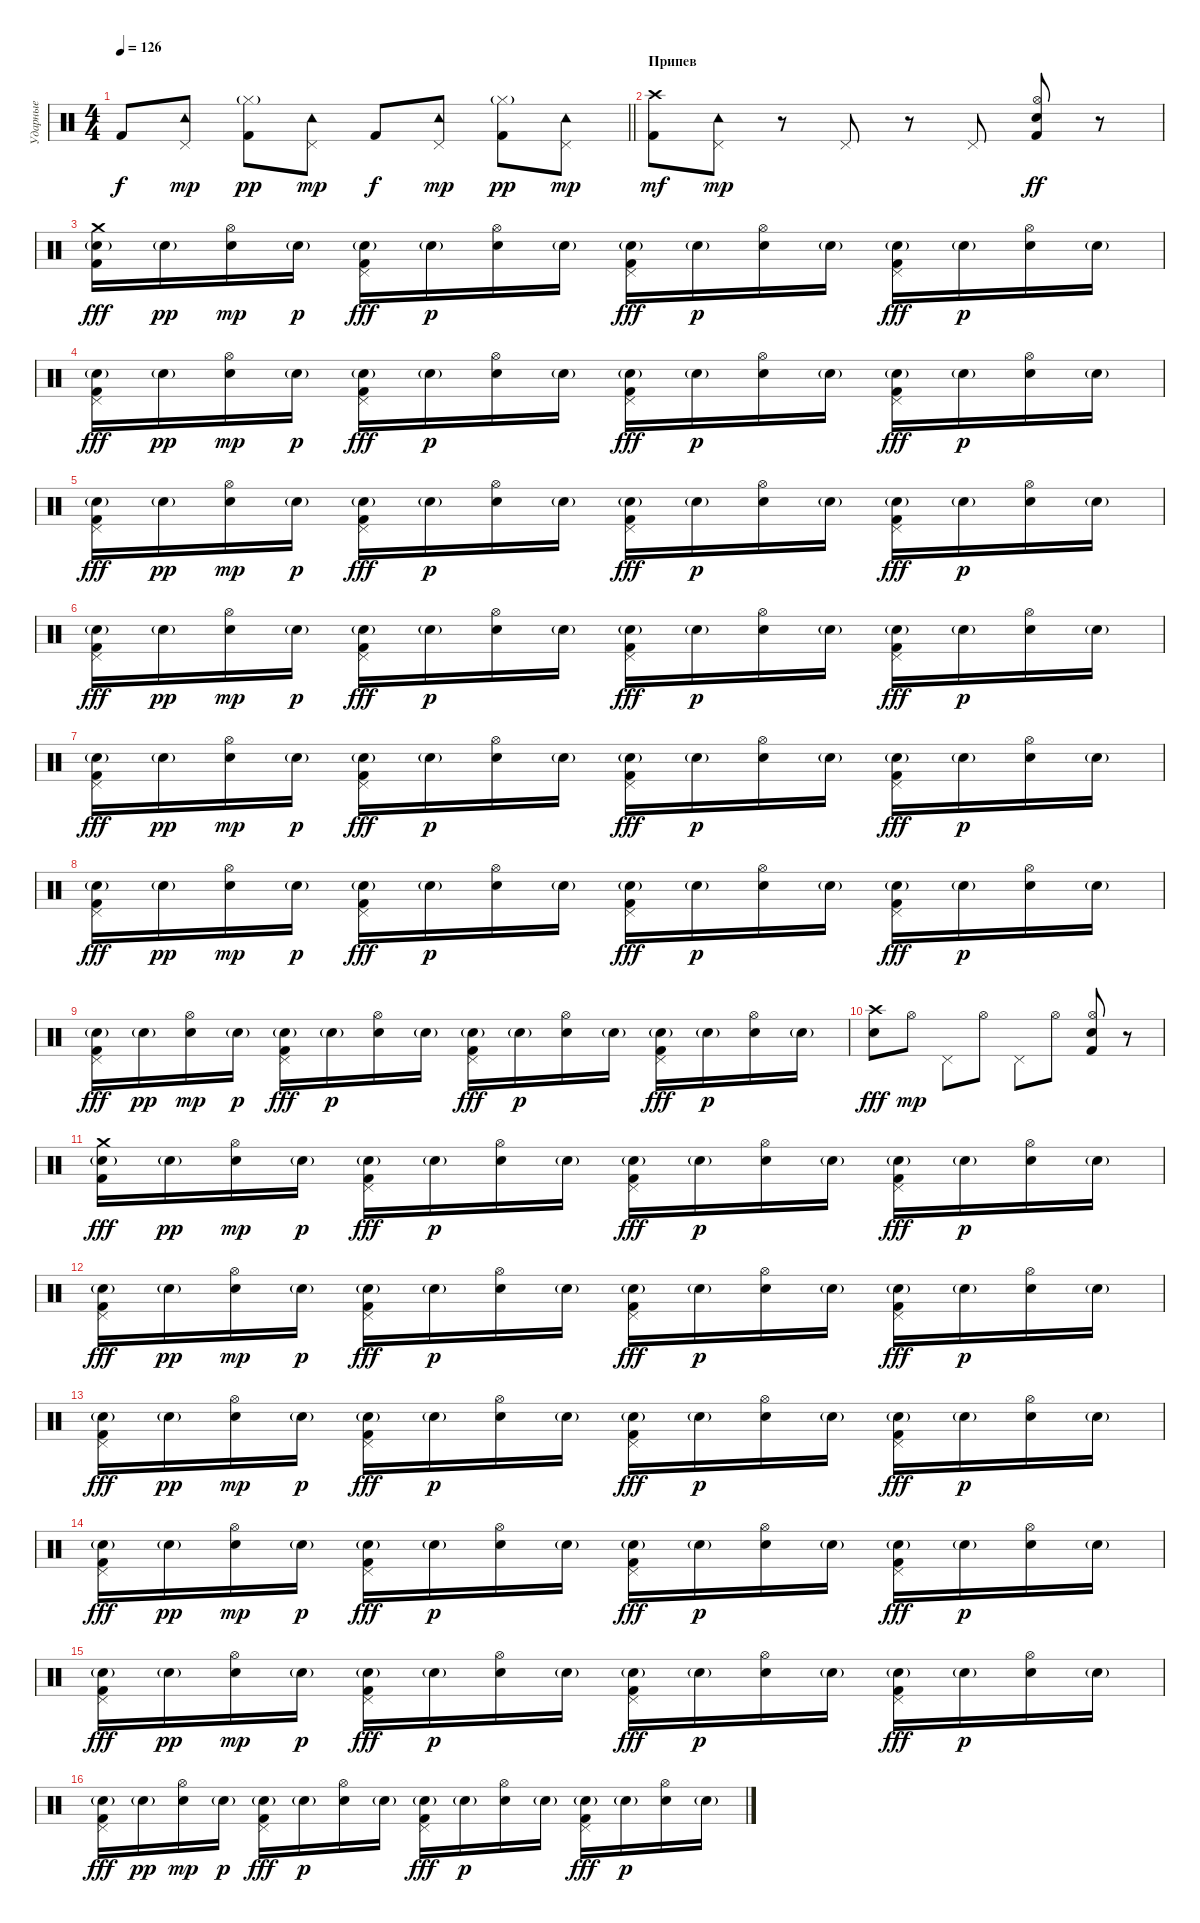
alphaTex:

\track ("Ударные" "Ударные") {instrument percussion}
\staff {score}
\articulation defaults
\ts (4 4)
\tempo 126
\clef neutral
\barLineRight lightlight
\ks c "Kick (hit) 2".8{dy f}
("Pedal Hi-Hat (hit)" "Tambourine (hit)").8{dy mp} ("Hi-Hat (closed)"{g} "Kick (hit) 2").8{dy pp} ("Pedal Hi-Hat (hit)" "Tambourine (hit)").8{dy mp} "Kick (hit) 2".8{dy f} ("Pedal Hi-Hat (hit)" "Tambourine (hit)").8{dy mp} ("Hi-Hat (closed)"{g} "Kick (hit) 2").8{dy pp} ("Pedal Hi-Hat (hit)" "Tambourine (hit)").8{dy mp} |
\section ("" "Припев")
("Crash high (hit)" "Kick (hit) 2").8{dy mf} ("Pedal Hi-Hat (hit)" "Tambourine (hit)").8{dy mp} r.8 "Pedal Hi-Hat (hit)".8 r.8 "Pedal Hi-Hat (hit)".8 ("Hi-Hat (open)" "Electric Snare (hit)" "Kick (hit) 2").8{dy ff} r.8 |
("Crash medium (hit)" "Snare (hit) 2"{g} "Kick (hit) 2").16{dy fff} "Snare (hit) 2"{g}.16{dy pp} ("Hi-Hat (open)" "Electric Snare (hit)").16{dy mp} "Snare (hit) 2"{g}.16{dy p} ("Pedal Hi-Hat (hit)" "Snare (hit) 2"{g} "Kick (hit) 2").16{dy fff} "Snare (hit) 2"{g}.16{dy p} ("Hi-Hat (open)" "Electric Snare (hit)").16 "Snare (hit) 2"{g}.16 ("Pedal Hi-Hat (hit)" "Snare (hit) 2"{g} "Kick (hit) 2").16{dy fff} "Snare (hit) 2"{g}.16{dy p} ("Hi-Hat (open)" "Electric Snare (hit)").16 "Snare (hit) 2"{g}.16 ("Pedal Hi-Hat (hit)" "Snare (hit) 2"{g} "Kick (hit) 2").16{dy fff} "Snare (hit) 2"{g}.16{dy p} ("Hi-Hat (open)" "Electric Snare (hit)").16 "Snare (hit) 2"{g}.16 |
("Pedal Hi-Hat (hit)" "Snare (hit) 2"{g} "Kick (hit) 2").16{dy fff} "Snare (hit) 2"{g}.16{dy pp} ("Hi-Hat (open)" "Electric Snare (hit)").16{dy mp} "Snare (hit) 2"{g}.16{dy p} ("Pedal Hi-Hat (hit)" "Snare (hit) 2"{g} "Kick (hit) 2").16{dy fff} "Snare (hit) 2"{g}.16{dy p} ("Hi-Hat (open)" "Electric Snare (hit)").16 "Snare (hit) 2"{g}.16 ("Pedal Hi-Hat (hit)" "Snare (hit) 2"{g} "Kick (hit) 2").16{dy fff} "Snare (hit) 2"{g}.16{dy p} ("Hi-Hat (open)" "Electric Snare (hit)").16 "Snare (hit) 2"{g}.16 ("Pedal Hi-Hat (hit)" "Snare (hit) 2"{g} "Kick (hit) 2").16{dy fff} "Snare (hit) 2"{g}.16{dy p} ("Hi-Hat (open)" "Electric Snare (hit)").16 "Snare (hit) 2"{g}.16 |
("Pedal Hi-Hat (hit)" "Snare (hit) 2"{g} "Kick (hit) 2").16{dy fff} "Snare (hit) 2"{g}.16{dy pp} ("Hi-Hat (open)" "Electric Snare (hit)").16{dy mp} "Snare (hit) 2"{g}.16{dy p} ("Pedal Hi-Hat (hit)" "Snare (hit) 2"{g} "Kick (hit) 2").16{dy fff} "Snare (hit) 2"{g}.16{dy p} ("Hi-Hat (open)" "Electric Snare (hit)").16 "Snare (hit) 2"{g}.16 ("Pedal Hi-Hat (hit)" "Snare (hit) 2"{g} "Kick (hit) 2").16{dy fff} "Snare (hit) 2"{g}.16{dy p} ("Hi-Hat (open)" "Electric Snare (hit)").16 "Snare (hit) 2"{g}.16 ("Pedal Hi-Hat (hit)" "Snare (hit) 2"{g} "Kick (hit) 2").16{dy fff} "Snare (hit) 2"{g}.16{dy p} ("Hi-Hat (open)" "Electric Snare (hit)").16 "Snare (hit) 2"{g}.16 |
("Pedal Hi-Hat (hit)" "Snare (hit) 2"{g} "Kick (hit) 2").16{dy fff} "Snare (hit) 2"{g}.16{dy pp} ("Hi-Hat (open)" "Electric Snare (hit)").16{dy mp} "Snare (hit) 2"{g}.16{dy p} ("Pedal Hi-Hat (hit)" "Snare (hit) 2"{g} "Kick (hit) 2").16{dy fff} "Snare (hit) 2"{g}.16{dy p} ("Hi-Hat (open)" "Electric Snare (hit)").16 "Snare (hit) 2"{g}.16 ("Pedal Hi-Hat (hit)" "Snare (hit) 2"{g} "Kick (hit) 2").16{dy fff} "Snare (hit) 2"{g}.16{dy p} ("Hi-Hat (open)" "Electric Snare (hit)").16 "Snare (hit) 2"{g}.16 ("Pedal Hi-Hat (hit)" "Snare (hit) 2"{g} "Kick (hit) 2").16{dy fff} "Snare (hit) 2"{g}.16{dy p} ("Hi-Hat (open)" "Electric Snare (hit)").16 "Snare (hit) 2"{g}.16 |
("Pedal Hi-Hat (hit)" "Snare (hit) 2"{g} "Kick (hit) 2").16{dy fff} "Snare (hit) 2"{g}.16{dy pp} ("Hi-Hat (open)" "Electric Snare (hit)").16{dy mp} "Snare (hit) 2"{g}.16{dy p} ("Pedal Hi-Hat (hit)" "Snare (hit) 2"{g} "Kick (hit) 2").16{dy fff} "Snare (hit) 2"{g}.16{dy p} ("Hi-Hat (open)" "Electric Snare (hit)").16 "Snare (hit) 2"{g}.16 ("Pedal Hi-Hat (hit)" "Snare (hit) 2"{g} "Kick (hit) 2").16{dy fff} "Snare (hit) 2"{g}.16{dy p} ("Hi-Hat (open)" "Electric Snare (hit)").16 "Snare (hit) 2"{g}.16 ("Pedal Hi-Hat (hit)" "Snare (hit) 2"{g} "Kick (hit) 2").16{dy fff} "Snare (hit) 2"{g}.16{dy p} ("Hi-Hat (open)" "Electric Snare (hit)").16 "Snare (hit) 2"{g}.16 |
("Pedal Hi-Hat (hit)" "Snare (hit) 2"{g} "Kick (hit) 2").16{dy fff} "Snare (hit) 2"{g}.16{dy pp} ("Hi-Hat (open)" "Electric Snare (hit)").16{dy mp} "Snare (hit) 2"{g}.16{dy p} ("Pedal Hi-Hat (hit)" "Snare (hit) 2"{g} "Kick (hit) 2").16{dy fff} "Snare (hit) 2"{g}.16{dy p} ("Hi-Hat (open)" "Electric Snare (hit)").16 "Snare (hit) 2"{g}.16 ("Pedal Hi-Hat (hit)" "Snare (hit) 2"{g} "Kick (hit) 2").16{dy fff} "Snare (hit) 2"{g}.16{dy p} ("Hi-Hat (open)" "Electric Snare (hit)").16 "Snare (hit) 2"{g}.16 ("Pedal Hi-Hat (hit)" "Snare (hit) 2"{g} "Kick (hit) 2").16{dy fff} "Snare (hit) 2"{g}.16{dy p} ("Hi-Hat (open)" "Electric Snare (hit)").16 "Snare (hit) 2"{g}.16 |
("Pedal Hi-Hat (hit)" "Snare (hit) 2"{g} "Kick (hit) 2").16{dy fff} "Snare (hit) 2"{g}.16{dy pp} ("Hi-Hat (open)" "Electric Snare (hit)").16{dy mp} "Snare (hit) 2"{g}.16{dy p} ("Pedal Hi-Hat (hit)" "Snare (hit) 2"{g} "Kick (hit) 2").16{dy fff} "Snare (hit) 2"{g}.16{dy p} ("Hi-Hat (open)" "Electric Snare (hit)").16 "Snare (hit) 2"{g}.16 ("Pedal Hi-Hat (hit)" "Snare (hit) 2"{g} "Kick (hit) 2").16{dy fff} "Snare (hit) 2"{g}.16{dy p} ("Hi-Hat (open)" "Electric Snare (hit)").16 "Snare (hit) 2"{g}.16 ("Pedal Hi-Hat (hit)" "Snare (hit) 2"{g} "Kick (hit) 2").16{dy fff} "Snare (hit) 2"{g}.16{dy p} ("Hi-Hat (open)" "Electric Snare (hit)").16 "Snare (hit) 2"{g}.16 |
("Crash high (hit)" "Electric Snare (hit)").8{dy fff} "Hi-Hat (open)".8{dy mp} "Pedal Hi-Hat (hit)".8 "Hi-Hat (open)".8 "Pedal Hi-Hat (hit)".8 "Hi-Hat (open)".8 ("Hi-Hat (open)" "Electric Snare (hit)" "Kick (hit) 2").8 r.8 |
("Crash medium (hit)" "Snare (hit) 2"{g} "Kick (hit) 2").16{dy fff} "Snare (hit) 2"{g}.16{dy pp} ("Hi-Hat (open)" "Electric Snare (hit)").16{dy mp} "Snare (hit) 2"{g}.16{dy p} ("Pedal Hi-Hat (hit)" "Snare (hit) 2"{g} "Kick (hit) 2").16{dy fff} "Snare (hit) 2"{g}.16{dy p} ("Hi-Hat (open)" "Electric Snare (hit)").16 "Snare (hit) 2"{g}.16 ("Pedal Hi-Hat (hit)" "Snare (hit) 2"{g} "Kick (hit) 2").16{dy fff} "Snare (hit) 2"{g}.16{dy p} ("Hi-Hat (open)" "Electric Snare (hit)").16 "Snare (hit) 2"{g}.16 ("Pedal Hi-Hat (hit)" "Snare (hit) 2"{g} "Kick (hit) 2").16{dy fff} "Snare (hit) 2"{g}.16{dy p} ("Hi-Hat (open)" "Electric Snare (hit)").16 "Snare (hit) 2"{g}.16 |
("Pedal Hi-Hat (hit)" "Snare (hit) 2"{g} "Kick (hit) 2").16{dy fff} "Snare (hit) 2"{g}.16{dy pp} ("Hi-Hat (open)" "Electric Snare (hit)").16{dy mp} "Snare (hit) 2"{g}.16{dy p} ("Pedal Hi-Hat (hit)" "Snare (hit) 2"{g} "Kick (hit) 2").16{dy fff} "Snare (hit) 2"{g}.16{dy p} ("Hi-Hat (open)" "Electric Snare (hit)").16 "Snare (hit) 2"{g}.16 ("Pedal Hi-Hat (hit)" "Snare (hit) 2"{g} "Kick (hit) 2").16{dy fff} "Snare (hit) 2"{g}.16{dy p} ("Hi-Hat (open)" "Electric Snare (hit)").16 "Snare (hit) 2"{g}.16 ("Pedal Hi-Hat (hit)" "Snare (hit) 2"{g} "Kick (hit) 2").16{dy fff} "Snare (hit) 2"{g}.16{dy p} ("Hi-Hat (open)" "Electric Snare (hit)").16 "Snare (hit) 2"{g}.16 |
("Pedal Hi-Hat (hit)" "Snare (hit) 2"{g} "Kick (hit) 2").16{dy fff} "Snare (hit) 2"{g}.16{dy pp} ("Hi-Hat (open)" "Electric Snare (hit)").16{dy mp} "Snare (hit) 2"{g}.16{dy p} ("Pedal Hi-Hat (hit)" "Snare (hit) 2"{g} "Kick (hit) 2").16{dy fff} "Snare (hit) 2"{g}.16{dy p} ("Hi-Hat (open)" "Electric Snare (hit)").16 "Snare (hit) 2"{g}.16 ("Pedal Hi-Hat (hit)" "Snare (hit) 2"{g} "Kick (hit) 2").16{dy fff} "Snare (hit) 2"{g}.16{dy p} ("Hi-Hat (open)" "Electric Snare (hit)").16 "Snare (hit) 2"{g}.16 ("Pedal Hi-Hat (hit)" "Snare (hit) 2"{g} "Kick (hit) 2").16{dy fff} "Snare (hit) 2"{g}.16{dy p} ("Hi-Hat (open)" "Electric Snare (hit)").16 "Snare (hit) 2"{g}.16 |
("Pedal Hi-Hat (hit)" "Snare (hit) 2"{g} "Kick (hit) 2").16{dy fff} "Snare (hit) 2"{g}.16{dy pp} ("Hi-Hat (open)" "Electric Snare (hit)").16{dy mp} "Snare (hit) 2"{g}.16{dy p} ("Pedal Hi-Hat (hit)" "Snare (hit) 2"{g} "Kick (hit) 2").16{dy fff} "Snare (hit) 2"{g}.16{dy p} ("Hi-Hat (open)" "Electric Snare (hit)").16 "Snare (hit) 2"{g}.16 ("Pedal Hi-Hat (hit)" "Snare (hit) 2"{g} "Kick (hit) 2").16{dy fff} "Snare (hit) 2"{g}.16{dy p} ("Hi-Hat (open)" "Electric Snare (hit)").16 "Snare (hit) 2"{g}.16 ("Pedal Hi-Hat (hit)" "Snare (hit) 2"{g} "Kick (hit) 2").16{dy fff} "Snare (hit) 2"{g}.16{dy p} ("Hi-Hat (open)" "Electric Snare (hit)").16 "Snare (hit) 2"{g}.16 |
("Pedal Hi-Hat (hit)" "Snare (hit) 2"{g} "Kick (hit) 2").16{dy fff} "Snare (hit) 2"{g}.16{dy pp} ("Hi-Hat (open)" "Electric Snare (hit)").16{dy mp} "Snare (hit) 2"{g}.16{dy p} ("Pedal Hi-Hat (hit)" "Snare (hit) 2"{g} "Kick (hit) 2").16{dy fff} "Snare (hit) 2"{g}.16{dy p} ("Hi-Hat (open)" "Electric Snare (hit)").16 "Snare (hit) 2"{g}.16 ("Pedal Hi-Hat (hit)" "Snare (hit) 2"{g} "Kick (hit) 2").16{dy fff} "Snare (hit) 2"{g}.16{dy p} ("Hi-Hat (open)" "Electric Snare (hit)").16 "Snare (hit) 2"{g}.16 ("Pedal Hi-Hat (hit)" "Snare (hit) 2"{g} "Kick (hit) 2").16{dy fff} "Snare (hit) 2"{g}.16{dy p} ("Hi-Hat (open)" "Electric Snare (hit)").16 "Snare (hit) 2"{g}.16 |
("Pedal Hi-Hat (hit)" "Snare (hit) 2"{g} "Kick (hit) 2").16{dy fff} "Snare (hit) 2"{g}.16{dy pp} ("Hi-Hat (open)" "Electric Snare (hit)").16{dy mp} "Snare (hit) 2"{g}.16{dy p} ("Pedal Hi-Hat (hit)" "Snare (hit) 2"{g} "Kick (hit) 2").16{dy fff} "Snare (hit) 2"{g}.16{dy p} ("Hi-Hat (open)" "Electric Snare (hit)").16 "Snare (hit) 2"{g}.16 ("Pedal Hi-Hat (hit)" "Snare (hit) 2"{g} "Kick (hit) 2").16{dy fff} "Snare (hit) 2"{g}.16{dy p} ("Hi-Hat (open)" "Electric Snare (hit)").16 "Snare (hit) 2"{g}.16 ("Pedal Hi-Hat (hit)" "Snare (hit) 2"{g} "Kick (hit) 2").16{dy fff} "Snare (hit) 2"{g}.16{dy p} ("Hi-Hat (open)" "Electric Snare (hit)").16 "Snare (hit) 2"{g}.16
